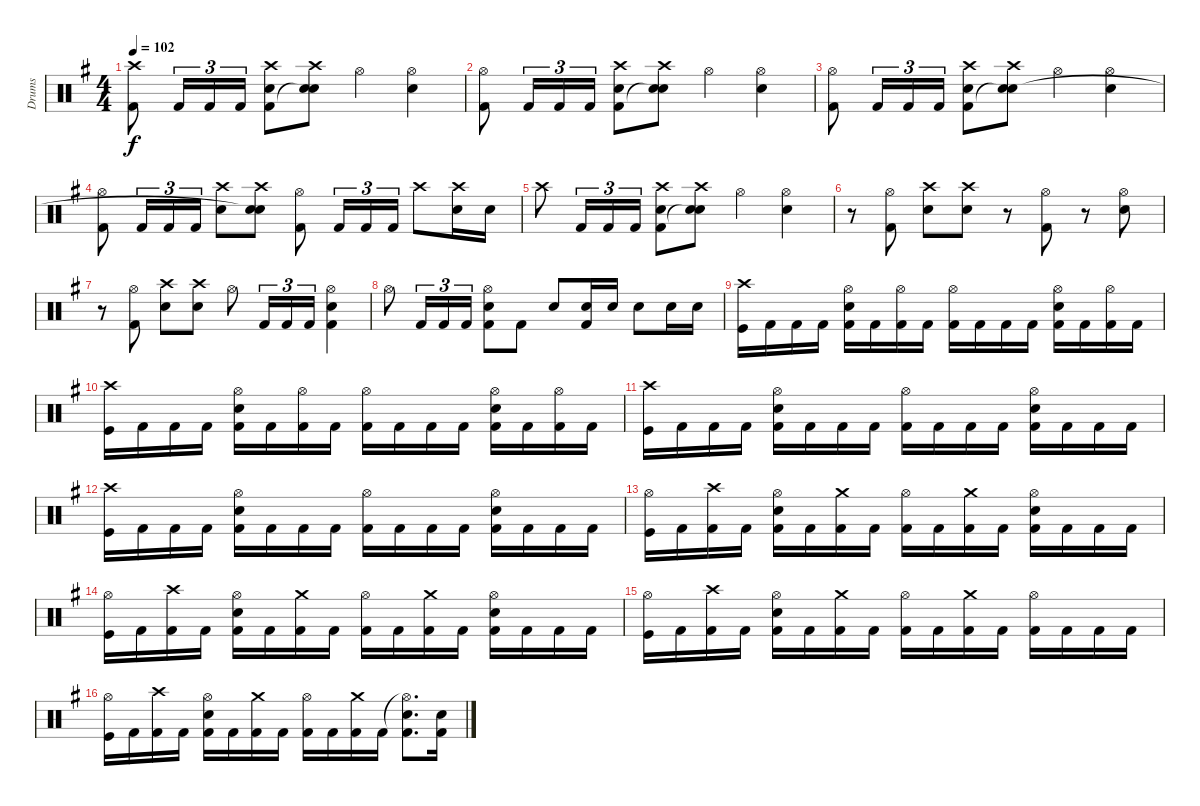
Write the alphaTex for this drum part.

\track ("Drums" "Drums") {instrument percussion}
\staff {score}
\articulation defaults
\ts (4 4)
\tempo 102
\clef neutral
\ks eminor
("Crash high (hit)" "Kick (hit) 2").8{dy f} "Kick (hit) 2".16{tu (3 2)} "Kick (hit) 2".16{tu (3 2)} "Kick (hit) 2".16{tu (3 2)} ("Crash high (hit)" "Snare (hit) 2" "Kick (hit) 2").8 ("Crash high (hit)" "Snare (hit) 2" "Snare (hit)"{t}).8 "Hi-Hat (open)".4 ("Hi-Hat (open)" "Snare (hit) 2").4 |
("Hi-Hat (open)" "Kick (hit) 2").8 "Kick (hit) 2".16{tu (3 2)} "Kick (hit) 2".16{tu (3 2)} "Kick (hit) 2".16{tu (3 2)} ("Crash high (hit)" "Snare (hit) 2" "Kick (hit) 2").8 ("Crash high (hit)" "Snare (hit) 2" "Snare (hit)"{t}).8 "Hi-Hat (open)".4 ("Hi-Hat (open)" "Snare (hit) 2").4 |
("Hi-Hat (open)" "Kick (hit) 2").8 "Kick (hit) 2".16{tu (3 2)} "Kick (hit) 2".16{tu (3 2)} "Kick (hit) 2".16{tu (3 2)} ("Crash high (hit)" "Snare (hit) 2" "Kick (hit) 2").8 ("Crash high (hit)" "Snare (hit) 2" "Snare (hit)"{t}).8 "Hi-Hat (open)".4 ("Hi-Hat (open)" "Snare (hit) 2").4 |
("Hi-Hat (open)" "Kick (hit) 2").8 "Kick (hit) 2".16{tu (3 2)} "Kick (hit) 2".16{tu (3 2)} "Kick (hit) 2".16{tu (3 2)} ("Crash high (hit)" "Snare (hit) 2").8 ("Crash high (hit)" "Snare (hit) 2" "Snare (hit)"{t}).8 ("Hi-Hat (open)" "Kick (hit) 2").8 "Kick (hit) 2".16{tu (3 2)} "Kick (hit) 2".16{tu (3 2)} "Kick (hit) 2".16{tu (3 2)} "Crash high (hit)".8 ("Crash high (hit)" "Snare (hit) 2").16 "Snare (hit) 2".16 |
"Crash high (hit)".8 "Kick (hit) 2".16{tu (3 2)} "Kick (hit) 2".16{tu (3 2)} "Kick (hit) 2".16{tu (3 2)} ("Crash high (hit)" "Snare (hit) 2" "Kick (hit) 2").8 ("Crash high (hit)" "Snare (hit) 2" "Snare (hit)"{t}).8 "Hi-Hat (open)".4 ("Hi-Hat (open)" "Snare (hit) 2").4 |
r.8 ("Hi-Hat (open)" "Kick (hit) 2").8 ("Crash high (hit)" "Snare (hit) 2").8 ("Crash high (hit)" "Snare (hit) 2").8 r.8 ("Hi-Hat (open)" "Kick (hit) 2").8 r.8 ("Hi-Hat (open)" "Snare (hit) 2").8 |
r.8 ("Hi-Hat (open)" "Kick (hit) 2").8 ("Crash high (hit)" "Snare (hit) 2").8 ("Crash high (hit)" "Snare (hit) 2").8 "Hi-Hat (open)".8 "Kick (hit) 2".16{tu (3 2)} "Kick (hit) 2".16{tu (3 2)} "Kick (hit) 2".16{tu (3 2)} ("Hi-Hat (open)" "Snare (hit) 2" "Kick (hit) 2").4 |
"Hi-Hat (open)".8 "Kick (hit) 2".16{tu (3 2)} "Kick (hit) 2".16{tu (3 2)} "Kick (hit) 2".16{tu (3 2)} ("Hi-Hat (open)" "Snare (hit) 2" "Kick (hit) 2").8 "Kick (hit) 2".8 "Snare (hit) 2".8 ("Snare (hit) 2" "Kick (hit) 2").16 "Snare (hit) 2".16 "Snare (hit) 2".8 "Snare (hit) 2".16 "Snare (hit) 2".16 |
("Crash high (hit)" "Kick (hit)").16 "Kick (hit) 2".16 "Kick (hit) 2".16 "Kick (hit) 2".16 ("Hi-Hat (open)" "Snare (hit) 2" "Kick (hit) 2").16 "Kick (hit) 2".16 ("Hi-Hat (open)" "Kick (hit) 2").16 "Kick (hit) 2".16 ("Hi-Hat (open)" "Kick (hit) 2").16 "Kick (hit) 2".16 "Kick (hit) 2".16 "Kick (hit) 2".16 ("Hi-Hat (open)" "Snare (hit) 2" "Kick (hit) 2").16 "Kick (hit) 2".16 ("Hi-Hat (open)" "Kick (hit) 2").16 "Kick (hit) 2".16 |
("Crash high (hit)" "Kick (hit)").16 "Kick (hit) 2".16 "Kick (hit) 2".16 "Kick (hit) 2".16 ("Hi-Hat (open)" "Snare (hit) 2" "Kick (hit) 2").16 "Kick (hit) 2".16 ("Hi-Hat (open)" "Kick (hit) 2").16 "Kick (hit) 2".16 ("Hi-Hat (open)" "Kick (hit) 2").16 "Kick (hit) 2".16 "Kick (hit) 2".16 "Kick (hit) 2".16 ("Hi-Hat (open)" "Snare (hit) 2" "Kick (hit) 2").16 "Kick (hit) 2".16 ("Hi-Hat (open)" "Kick (hit) 2").16 "Kick (hit) 2".16 |
("Crash high (hit)" "Kick (hit)").16 "Kick (hit) 2".16 "Kick (hit) 2".16 "Kick (hit) 2".16 ("Hi-Hat (open)" "Snare (hit) 2" "Kick (hit) 2").16 "Kick (hit) 2".16 "Kick (hit) 2".16 "Kick (hit) 2".16 ("Hi-Hat (open)" "Kick (hit) 2").16 "Kick (hit) 2".16 "Kick (hit) 2".16 "Kick (hit) 2".16 ("Hi-Hat (open)" "Snare (hit) 2" "Kick (hit) 2").16 "Kick (hit) 2".16 "Kick (hit) 2".16 "Kick (hit) 2".16 |
("Crash high (hit)" "Kick (hit)").16 "Kick (hit) 2".16 "Kick (hit) 2".16 "Kick (hit) 2".16 ("Hi-Hat (open)" "Snare (hit) 2" "Kick (hit) 2").16 "Kick (hit) 2".16 "Kick (hit) 2".16 "Kick (hit) 2".16 ("Hi-Hat (open)" "Kick (hit) 2").16 "Kick (hit) 2".16 "Kick (hit) 2".16 "Kick (hit) 2".16 ("Hi-Hat (open)" "Snare (hit) 2" "Kick (hit) 2").16 "Kick (hit) 2".16 "Kick (hit) 2".16 "Kick (hit) 2".16 |
("Hi-Hat (open)" "Kick (hit)").16 "Kick (hit) 2".16 ("Crash high (hit)" "Kick (hit) 2").16 "Kick (hit) 2".16 ("Hi-Hat (open)" "Snare (hit) 2" "Kick (hit) 2").16 "Kick (hit) 2".16 ("Crash medium (hit)" "Kick (hit) 2").16 "Kick (hit) 2".16 ("Hi-Hat (open)" "Kick (hit) 2").16 "Kick (hit) 2".16 ("Crash medium (hit)" "Kick (hit) 2").16 "Kick (hit) 2".16 ("Hi-Hat (open)" "Snare (hit) 2" "Kick (hit) 2").16 "Kick (hit) 2".16 "Kick (hit) 2".16 "Kick (hit) 2".16 |
("Hi-Hat (open)" "Kick (hit)").16 "Kick (hit) 2".16 ("Crash high (hit)" "Kick (hit) 2").16 "Kick (hit) 2".16 ("Hi-Hat (open)" "Snare (hit) 2" "Kick (hit) 2").16 "Kick (hit) 2".16 ("Crash medium (hit)" "Kick (hit) 2").16 "Kick (hit) 2".16 ("Hi-Hat (open)" "Kick (hit) 2").16 "Kick (hit) 2".16 ("Crash medium (hit)" "Kick (hit) 2").16 "Kick (hit) 2".16 ("Hi-Hat (open)" "Snare (hit) 2" "Kick (hit) 2").16 "Kick (hit) 2".16 "Kick (hit) 2".16 "Kick (hit) 2".16 |
("Hi-Hat (open)" "Kick (hit)").16 "Kick (hit) 2".16 ("Crash high (hit)" "Kick (hit) 2").16 "Kick (hit) 2".16 ("Hi-Hat (open)" "Snare (hit) 2" "Kick (hit) 2").16 "Kick (hit) 2".16 ("Crash medium (hit)" "Kick (hit) 2").16 "Kick (hit) 2".16 ("Hi-Hat (open)" "Kick (hit) 2").16 "Kick (hit) 2".16 ("Crash medium (hit)" "Kick (hit) 2").16 "Kick (hit) 2".16 ("Hi-Hat (open)" "Kick (hit) 2").16 "Kick (hit) 2".16 "Kick (hit) 2".16 "Kick (hit) 2".16 |
("Hi-Hat (open)" "Kick (hit)").16 "Kick (hit) 2".16 ("Crash high (hit)" "Kick (hit) 2").16 "Kick (hit) 2".16 ("Hi-Hat (open)" "Snare (hit) 2" "Kick (hit) 2").16 "Kick (hit) 2".16 ("Crash medium (hit)" "Kick (hit) 2").16 "Kick (hit) 2".16 ("Hi-Hat (open)" "Kick (hit) 2").16 "Kick (hit) 2".16 ("Crash medium (hit)" "Kick (hit) 2").16 "Kick (hit) 2".16 ("Hi-Hat (open)"{t} "Snare (hit) 2" "Kick (hit) 2").8{d} ("Snare (hit) 2" "Kick (hit) 2").16
